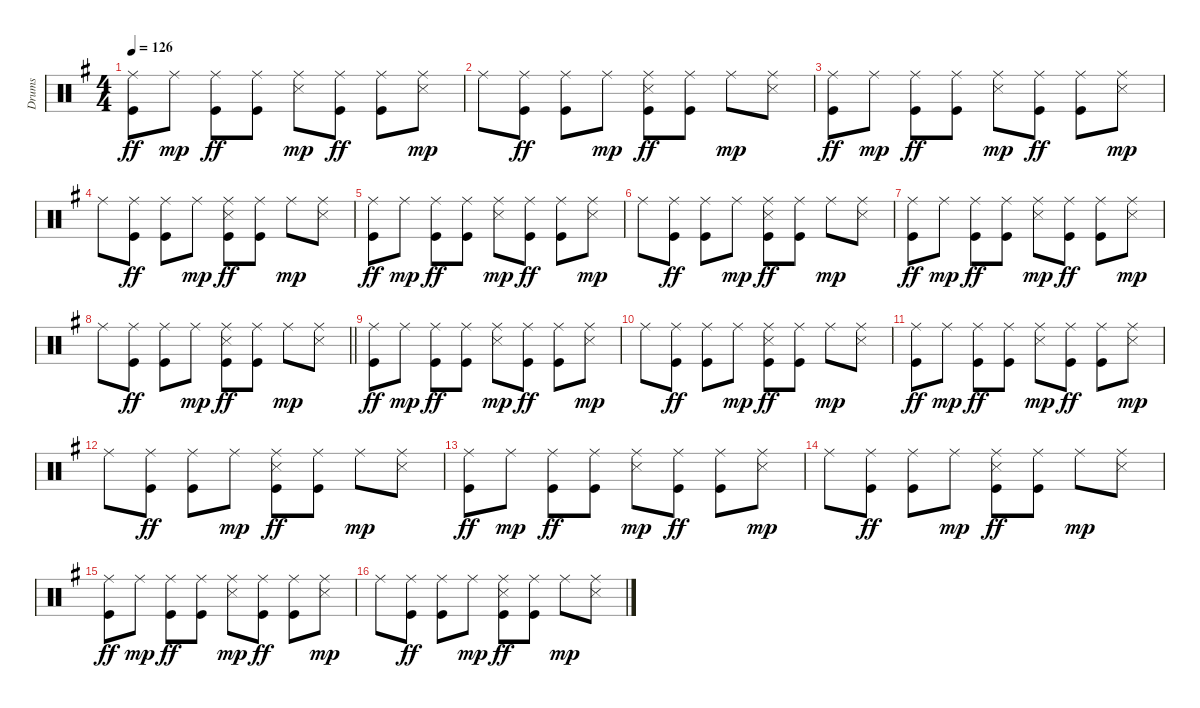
\track ("Drums" "Drums") {instrument percussion}
\staff {score}
\articulation defaults
\ts (4 4)
\tempo 126
\clef neutral
\ks eminor
("Ride (middle)" "Kick (hit)").8{dy ff} "Ride (middle)".8{dy mp} ("Ride (middle)" "Kick (hit)").8{dy ff} ("Ride (middle)" "Kick (hit)").8 ("Ride (middle)" "Snare (side stick) 3").8{dy mp} ("Ride (middle)" "Kick (hit)").8{dy ff} ("Ride (middle)" "Kick (hit)").8 ("Ride (middle)" "Snare (side stick) 3").8{dy mp} |
"Ride (middle)".8 ("Ride (middle)" "Kick (hit)").8{dy ff} ("Ride (middle)" "Kick (hit)").8 "Ride (middle)".8{dy mp} ("Ride (middle)" "Snare (side stick) 3" "Kick (hit)").8{dy ff} ("Ride (middle)" "Kick (hit)").8 "Ride (middle)".8{dy mp} ("Ride (middle)" "Snare (side stick) 3").8 |
("Ride (middle)" "Kick (hit)").8{dy ff} "Ride (middle)".8{dy mp} ("Ride (middle)" "Kick (hit)").8{dy ff} ("Ride (middle)" "Kick (hit)").8 ("Ride (middle)" "Snare (side stick) 3").8{dy mp} ("Ride (middle)" "Kick (hit)").8{dy ff} ("Ride (middle)" "Kick (hit)").8 ("Ride (middle)" "Snare (side stick) 3").8{dy mp} |
"Ride (middle)".8 ("Ride (middle)" "Kick (hit)").8{dy ff} ("Ride (middle)" "Kick (hit)").8 "Ride (middle)".8{dy mp} ("Ride (middle)" "Snare (side stick) 3" "Kick (hit)").8{dy ff} ("Ride (middle)" "Kick (hit)").8 "Ride (middle)".8{dy mp} ("Ride (middle)" "Snare (side stick) 3").8 |
("Ride (middle)" "Kick (hit)").8{dy ff} "Ride (middle)".8{dy mp} ("Ride (middle)" "Kick (hit)").8{dy ff} ("Ride (middle)" "Kick (hit)").8 ("Ride (middle)" "Snare (side stick) 3").8{dy mp} ("Ride (middle)" "Kick (hit)").8{dy ff} ("Ride (middle)" "Kick (hit)").8 ("Ride (middle)" "Snare (side stick) 3").8{dy mp} |
"Ride (middle)".8 ("Ride (middle)" "Kick (hit)").8{dy ff} ("Ride (middle)" "Kick (hit)").8 "Ride (middle)".8{dy mp} ("Ride (middle)" "Snare (side stick) 3" "Kick (hit)").8{dy ff} ("Ride (middle)" "Kick (hit)").8 "Ride (middle)".8{dy mp} ("Ride (middle)" "Snare (side stick) 3").8 |
("Ride (middle)" "Kick (hit)").8{dy ff} "Ride (middle)".8{dy mp} ("Ride (middle)" "Kick (hit)").8{dy ff} ("Ride (middle)" "Kick (hit)").8 ("Ride (middle)" "Snare (side stick) 3").8{dy mp} ("Ride (middle)" "Kick (hit)").8{dy ff} ("Ride (middle)" "Kick (hit)").8 ("Ride (middle)" "Snare (side stick) 3").8{dy mp} |
\barLineRight lightlight "Ride (middle)".8
("Ride (middle)" "Kick (hit)").8{dy ff} ("Ride (middle)" "Kick (hit)").8 "Ride (middle)".8{dy mp} ("Ride (middle)" "Snare (side stick) 3" "Kick (hit)").8{dy ff} ("Ride (middle)" "Kick (hit)").8 "Ride (middle)".8{dy mp} ("Ride (middle)" "Snare (side stick) 3").8 |
("Ride (middle)" "Kick (hit)").8{dy ff} "Ride (middle)".8{dy mp} ("Ride (middle)" "Kick (hit)").8{dy ff} ("Ride (middle)" "Kick (hit)").8 ("Ride (middle)" "Snare (side stick) 3").8{dy mp} ("Ride (middle)" "Kick (hit)").8{dy ff} ("Ride (middle)" "Kick (hit)").8 ("Ride (middle)" "Snare (side stick) 3").8{dy mp} |
"Ride (middle)".8 ("Ride (middle)" "Kick (hit)").8{dy ff} ("Ride (middle)" "Kick (hit)").8 "Ride (middle)".8{dy mp} ("Ride (middle)" "Snare (side stick) 3" "Kick (hit)").8{dy ff} ("Ride (middle)" "Kick (hit)").8 "Ride (middle)".8{dy mp} ("Ride (middle)" "Snare (side stick) 3").8 |
("Ride (middle)" "Kick (hit)").8{dy ff} "Ride (middle)".8{dy mp} ("Ride (middle)" "Kick (hit)").8{dy ff} ("Ride (middle)" "Kick (hit)").8 ("Ride (middle)" "Snare (side stick) 3").8{dy mp} ("Ride (middle)" "Kick (hit)").8{dy ff} ("Ride (middle)" "Kick (hit)").8 ("Ride (middle)" "Snare (side stick) 3").8{dy mp} |
"Ride (middle)".8 ("Ride (middle)" "Kick (hit)").8{dy ff} ("Ride (middle)" "Kick (hit)").8 "Ride (middle)".8{dy mp} ("Ride (middle)" "Snare (side stick) 3" "Kick (hit)").8{dy ff} ("Ride (middle)" "Kick (hit)").8 "Ride (middle)".8{dy mp} ("Ride (middle)" "Snare (side stick) 3").8 |
("Ride (middle)" "Kick (hit)").8{dy ff} "Ride (middle)".8{dy mp} ("Ride (middle)" "Kick (hit)").8{dy ff} ("Ride (middle)" "Kick (hit)").8 ("Ride (middle)" "Snare (side stick) 3").8{dy mp} ("Ride (middle)" "Kick (hit)").8{dy ff} ("Ride (middle)" "Kick (hit)").8 ("Ride (middle)" "Snare (side stick) 3").8{dy mp} |
"Ride (middle)".8 ("Ride (middle)" "Kick (hit)").8{dy ff} ("Ride (middle)" "Kick (hit)").8 "Ride (middle)".8{dy mp} ("Ride (middle)" "Snare (side stick) 3" "Kick (hit)").8{dy ff} ("Ride (middle)" "Kick (hit)").8 "Ride (middle)".8{dy mp} ("Ride (middle)" "Snare (side stick) 3").8 |
("Ride (middle)" "Kick (hit)").8{dy ff} "Ride (middle)".8{dy mp} ("Ride (middle)" "Kick (hit)").8{dy ff} ("Ride (middle)" "Kick (hit)").8 ("Ride (middle)" "Snare (side stick) 3").8{dy mp} ("Ride (middle)" "Kick (hit)").8{dy ff} ("Ride (middle)" "Kick (hit)").8 ("Ride (middle)" "Snare (side stick) 3").8{dy mp} |
"Ride (middle)".8 ("Ride (middle)" "Kick (hit)").8{dy ff} ("Ride (middle)" "Kick (hit)").8 "Ride (middle)".8{dy mp} ("Ride (middle)" "Snare (side stick) 3" "Kick (hit)").8{dy ff} ("Ride (middle)" "Kick (hit)").8 "Ride (middle)".8{dy mp} ("Ride (middle)" "Snare (side stick) 3").8
